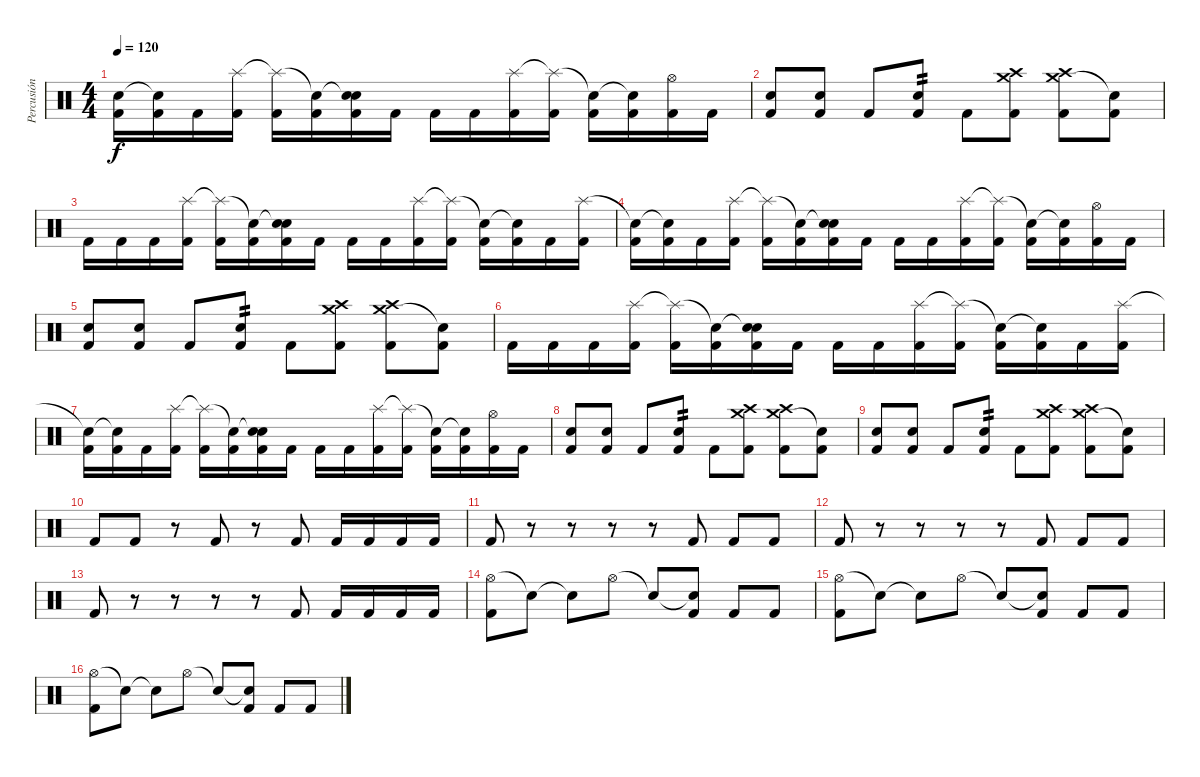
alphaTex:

\track ("Percusión" "Percusión") {instrument percussion}
\staff {score}
\articulation defaults
\ts (4 4)
\tempo 120
\clef neutral
\ks c
("Snare (hit)"{t} "Kick (hit) 2").16{dy f} ("Snare (hit)"{t} "Kick (hit) 2").16 "Kick (hit) 2".16 ("Splash (hit)" "Kick (hit) 2").16 ("Splash (hit)"{t} "Kick (hit) 2").16 ("Snare (hit)"{t} "Kick (hit) 2").16 ("Snare (hit)"{t} "Electric Snare (hit)" "Kick (hit) 2").16 "Kick (hit) 2".16 "Kick (hit) 2".16 "Kick (hit) 2".16 ("Splash (hit)" "Kick (hit) 2").16 ("Splash (hit)"{t} "Kick (hit) 2").16 ("Snare (hit)"{t} "Kick (hit) 2").16 ("Snare (hit)"{t} "Kick (hit) 2").16 ("Hi-Hat (open)" "Kick (hit) 2").16 "Kick (hit) 2".16 |
("Electric Snare (hit)" "Kick (hit) 2").8 ("Electric Snare (hit)" "Kick (hit) 2").8 "Kick (hit) 2".8 ("Electric Snare (hit)" "Kick (hit) 2").8{tp 2} "Kick (hit) 2".8 ("Crash medium (hit)" "Crash high (hit)" "Kick (hit) 2").8 ("Crash medium (hit)" "Crash high (hit)" "Kick (hit) 2").8 ("Snare (hit)"{t} "Kick (hit) 2").8 |
"Kick (hit) 2".16 "Kick (hit) 2".16 "Kick (hit) 2".16 ("Splash (hit)" "Kick (hit) 2").16 ("Splash (hit)"{t} "Kick (hit) 2").16 ("Snare (hit)"{t} "Kick (hit) 2").16 ("Snare (hit)"{t} "Electric Snare (hit)" "Kick (hit) 2").16 "Kick (hit) 2".16 "Kick (hit) 2".16 "Kick (hit) 2".16 ("Splash (hit)" "Kick (hit) 2").16 ("Splash (hit)"{t} "Kick (hit) 2").16 ("Snare (hit)"{t} "Kick (hit) 2").16 ("Snare (hit)"{t} "Kick (hit) 2").16 "Kick (hit) 2".16 ("Splash (hit)" "Kick (hit) 2").16 |
("Snare (hit)"{t} "Kick (hit) 2").16 ("Snare (hit)"{t} "Kick (hit) 2").16 "Kick (hit) 2".16 ("Splash (hit)" "Kick (hit) 2").16 ("Splash (hit)"{t} "Kick (hit) 2").16 ("Snare (hit)"{t} "Kick (hit) 2").16 ("Snare (hit)"{t} "Electric Snare (hit)" "Kick (hit) 2").16 "Kick (hit) 2".16 "Kick (hit) 2".16 "Kick (hit) 2".16 ("Splash (hit)" "Kick (hit) 2").16 ("Splash (hit)"{t} "Kick (hit) 2").16 ("Snare (hit)"{t} "Kick (hit) 2").16 ("Snare (hit)"{t} "Kick (hit) 2").16 ("Hi-Hat (open)" "Kick (hit) 2").16 "Kick (hit) 2".16 |
("Electric Snare (hit)" "Kick (hit) 2").8 ("Electric Snare (hit)" "Kick (hit) 2").8 "Kick (hit) 2".8 ("Electric Snare (hit)" "Kick (hit) 2").8{tp 2} "Kick (hit) 2".8 ("Crash medium (hit)" "Crash high (hit)" "Kick (hit) 2").8 ("Crash medium (hit)" "Crash high (hit)" "Kick (hit) 2").8 ("Snare (hit)"{t} "Kick (hit) 2").8 |
"Kick (hit) 2".16 "Kick (hit) 2".16 "Kick (hit) 2".16 ("Splash (hit)" "Kick (hit) 2").16 ("Splash (hit)"{t} "Kick (hit) 2").16 ("Snare (hit)"{t} "Kick (hit) 2").16 ("Snare (hit)"{t} "Electric Snare (hit)" "Kick (hit) 2").16 "Kick (hit) 2".16 "Kick (hit) 2".16 "Kick (hit) 2".16 ("Splash (hit)" "Kick (hit) 2").16 ("Splash (hit)"{t} "Kick (hit) 2").16 ("Snare (hit)"{t} "Kick (hit) 2").16 ("Snare (hit)"{t} "Kick (hit) 2").16 "Kick (hit) 2".16 ("Splash (hit)" "Kick (hit) 2").16 |
("Snare (hit)"{t} "Kick (hit) 2").16 ("Snare (hit)"{t} "Kick (hit) 2").16 "Kick (hit) 2".16 ("Splash (hit)" "Kick (hit) 2").16 ("Splash (hit)"{t} "Kick (hit) 2").16 ("Snare (hit)"{t} "Kick (hit) 2").16 ("Snare (hit)"{t} "Electric Snare (hit)" "Kick (hit) 2").16 "Kick (hit) 2".16 "Kick (hit) 2".16 "Kick (hit) 2".16 ("Splash (hit)" "Kick (hit) 2").16 ("Splash (hit)"{t} "Kick (hit) 2").16 ("Snare (hit)"{t} "Kick (hit) 2").16 ("Snare (hit)"{t} "Kick (hit) 2").16 ("Hi-Hat (open)" "Kick (hit) 2").16 "Kick (hit) 2".16 |
("Electric Snare (hit)" "Kick (hit) 2").8 ("Electric Snare (hit)" "Kick (hit) 2").8 "Kick (hit) 2".8 ("Electric Snare (hit)" "Kick (hit) 2").8{tp 2} "Kick (hit) 2".8 ("Crash medium (hit)" "Crash high (hit)" "Kick (hit) 2").8 ("Crash medium (hit)" "Crash high (hit)" "Kick (hit) 2").8 ("Snare (hit)"{t} "Kick (hit) 2").8 |
("Electric Snare (hit)" "Kick (hit) 2").8 ("Electric Snare (hit)" "Kick (hit) 2").8 "Kick (hit) 2".8 ("Electric Snare (hit)" "Kick (hit) 2").8{tp 2} "Kick (hit) 2".8 ("Crash medium (hit)" "Crash high (hit)" "Kick (hit) 2").8 ("Crash medium (hit)" "Crash high (hit)" "Kick (hit) 2").8 ("Snare (hit)"{t} "Kick (hit) 2").8 |
"Kick (hit) 2".8 "Kick (hit) 2".8 r.8 "Kick (hit) 2".8 r.8 "Kick (hit) 2".8 "Kick (hit) 2".16 "Kick (hit) 2".16 "Kick (hit) 2".16 "Kick (hit) 2".16 |
"Kick (hit) 2".8 r.8 r.8 r.8 r.8 "Kick (hit) 2".8 "Kick (hit) 2".8 "Kick (hit) 2".8 |
"Kick (hit) 2".8 r.8 r.8 r.8 r.8 "Kick (hit) 2".8 "Kick (hit) 2".8 "Kick (hit) 2".8 |
"Kick (hit) 2".8 r.8 r.8 r.8 r.8 "Kick (hit) 2".8 "Kick (hit) 2".16 "Kick (hit) 2".16 "Kick (hit) 2".16 "Kick (hit) 2".16 |
("Hi-Hat (open)" "Kick (hit) 2").8 "Snare (hit)"{t}.8 "Snare (hit)"{t}.8 "Hi-Hat (open)".8 "Snare (hit)"{t}.8 ("Snare (hit)"{t} "Kick (hit) 2").8 "Kick (hit) 2".8 "Kick (hit) 2".8 |
("Hi-Hat (open)" "Kick (hit) 2").8 "Snare (hit)"{t}.8 "Snare (hit)"{t}.8 "Hi-Hat (open)".8 "Snare (hit)"{t}.8 ("Snare (hit)"{t} "Kick (hit) 2").8 "Kick (hit) 2".8 "Kick (hit) 2".8 |
("Hi-Hat (open)" "Kick (hit) 2").8 "Snare (hit)"{t}.8 "Snare (hit)"{t}.8 "Hi-Hat (open)".8 "Snare (hit)"{t}.8 ("Snare (hit)"{t} "Kick (hit) 2").8 "Kick (hit) 2".8 "Kick (hit) 2".8
